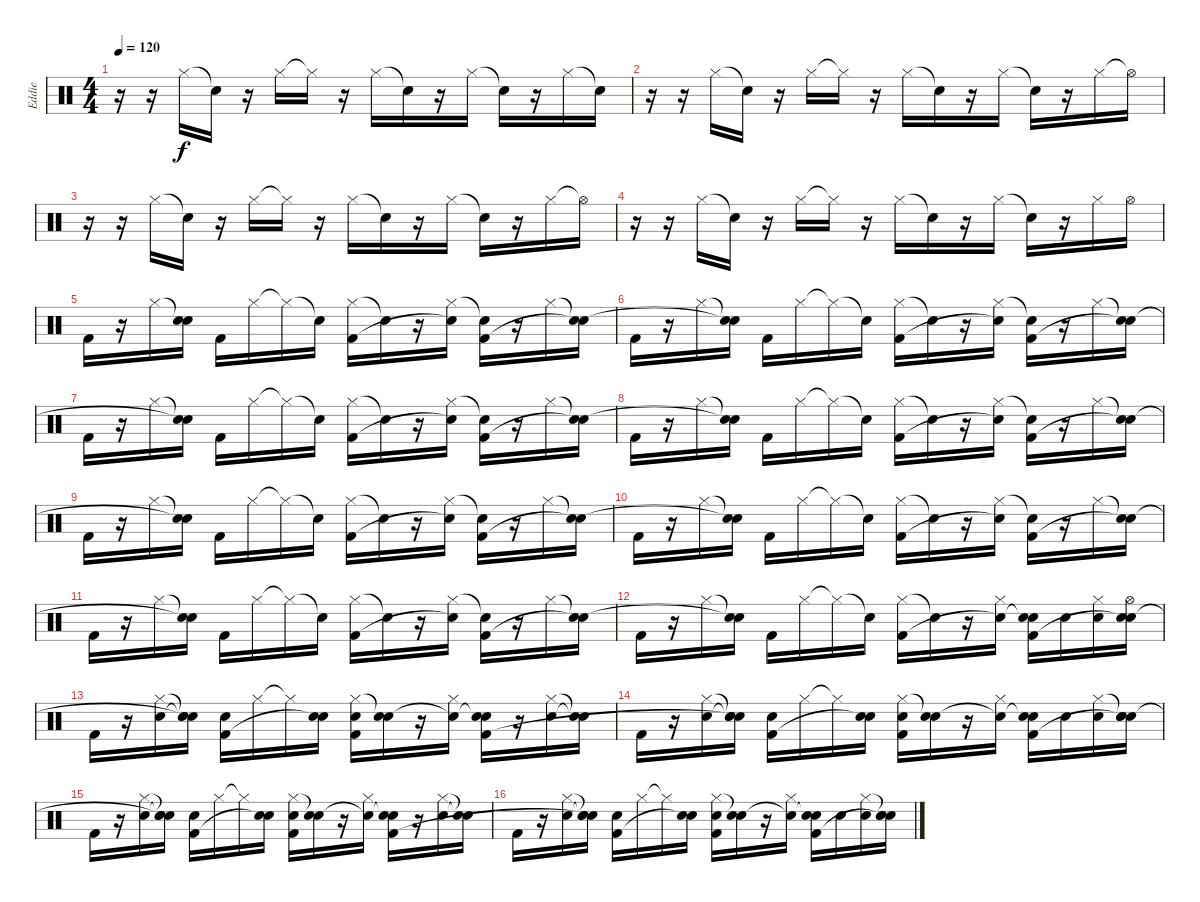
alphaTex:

\track ("Eddie" "Eddie") {instrument percussion}
\staff {score}
\articulation defaults
\ts (4 4)
\tempo 120
\clef neutral
\ks c
r.16{dy f} r.16 "Hi-Hat (closed)".16 "Snare (hit)"{t}.16 r.16 "Hi-Hat (closed)".16 "Hi-Hat (closed)"{t}.16 r.16 "Hi-Hat (closed)".16 "Snare (hit)"{t}.16 r.16 "Hi-Hat (closed)".16 "Snare (hit)"{t}.16 r.16 "Hi-Hat (closed)".16 "Snare (hit)"{t}.16 |
r.16 r.16 "Hi-Hat (closed)".16 "Snare (hit)"{t}.16 r.16 "Hi-Hat (closed)".16 "Hi-Hat (closed)"{t}.16 r.16 "Hi-Hat (closed)".16 "Snare (hit)"{t}.16 r.16 "Hi-Hat (closed)".16 "Snare (hit)"{t}.16 r.16 "Hi-Hat (closed)".16 "Hi-Hat (open)"{t}.16 |
r.16 r.16 "Hi-Hat (closed)".16 "Snare (hit)"{t}.16 r.16 "Hi-Hat (closed)".16 "Hi-Hat (closed)"{t}.16 r.16 "Hi-Hat (closed)".16 "Snare (hit)"{t}.16 r.16 "Hi-Hat (closed)".16 "Snare (hit)"{t}.16 r.16 "Hi-Hat (closed)".16 "Hi-Hat (open)"{t}.16 |
r.16 r.16 "Hi-Hat (closed)".16 "Snare (hit)"{t}.16 r.16 "Hi-Hat (closed)".16 "Hi-Hat (closed)"{t}.16 r.16 "Hi-Hat (closed)".16 "Snare (hit)"{t}.16 r.16 "Hi-Hat (closed)".16 "Snare (hit)"{t}.16 r.16 "Hi-Hat (closed)".16 "Hi-Hat (open)".16 |
"Kick (hit) 2".16 r.16 "Hi-Hat (closed)".16 ("Snare (hit)"{t} "Snare (hit)").16 "Kick (hit) 2".16 "Hi-Hat (closed)".16 "Hi-Hat (closed)"{t}.16 "Snare (hit)"{t}.16 ("Hi-Hat (closed)" "Kick (hit) 2").16 "Snare (hit)"{t}.16 r.16 ("Hi-Hat (closed)" "Snare (hit)"{t}).16 ("Snare (hit)"{t} "Kick (hit) 2").16 r.16 "Hi-Hat (closed)".16 ("Snare (hit)"{t} "Snare (hit)"{t}).16 |
"Kick (hit) 2".16 r.16 "Hi-Hat (closed)".16 ("Snare (hit)"{t} "Snare (hit)"{t}).16 "Kick (hit) 2".16 "Hi-Hat (closed)".16 "Hi-Hat (closed)"{t}.16 "Snare (hit)"{t}.16 ("Hi-Hat (closed)" "Kick (hit) 2").16 "Snare (hit)"{t}.16 r.16 ("Hi-Hat (closed)" "Snare (hit)"{t}).16 ("Snare (hit)"{t} "Kick (hit) 2").16 r.16 "Hi-Hat (closed)".16 ("Snare (hit)"{t} "Snare (hit)"{t}).16 |
"Kick (hit) 2".16 r.16 "Hi-Hat (closed)".16 ("Snare (hit)"{t} "Snare (hit)"{t}).16 "Kick (hit) 2".16 "Hi-Hat (closed)".16 "Hi-Hat (closed)"{t}.16 "Snare (hit)"{t}.16 ("Hi-Hat (closed)" "Kick (hit) 2").16 "Snare (hit)"{t}.16 r.16 ("Hi-Hat (closed)" "Snare (hit)"{t}).16 ("Snare (hit)"{t} "Kick (hit) 2").16 r.16 "Hi-Hat (closed)".16 ("Snare (hit)"{t} "Snare (hit)"{t}).16 |
"Kick (hit) 2".16 r.16 "Hi-Hat (closed)".16 ("Snare (hit)"{t} "Snare (hit)"{t}).16 "Kick (hit) 2".16 "Hi-Hat (closed)".16 "Hi-Hat (closed)"{t}.16 "Snare (hit)"{t}.16 ("Hi-Hat (closed)" "Kick (hit) 2").16 "Snare (hit)"{t}.16 r.16 ("Hi-Hat (closed)" "Snare (hit)"{t}).16 ("Snare (hit)"{t} "Kick (hit) 2").16 r.16 "Hi-Hat (closed)".16 ("Snare (hit)"{t} "Snare (hit)"{t}).16 |
"Kick (hit) 2".16 r.16 "Hi-Hat (closed)".16 ("Snare (hit)"{t} "Snare (hit)"{t}).16 "Kick (hit) 2".16 "Hi-Hat (closed)".16 "Hi-Hat (closed)"{t}.16 "Snare (hit)"{t}.16 ("Hi-Hat (closed)" "Kick (hit) 2").16 "Snare (hit)"{t}.16 r.16 ("Hi-Hat (closed)" "Snare (hit)"{t}).16 ("Snare (hit)"{t} "Kick (hit) 2").16 r.16 "Hi-Hat (closed)".16 ("Snare (hit)"{t} "Snare (hit)"{t}).16 |
"Kick (hit) 2".16 r.16 "Hi-Hat (closed)".16 ("Snare (hit)"{t} "Snare (hit)"{t}).16 "Kick (hit) 2".16 "Hi-Hat (closed)".16 "Hi-Hat (closed)"{t}.16 "Snare (hit)"{t}.16 ("Hi-Hat (closed)" "Kick (hit) 2").16 "Snare (hit)"{t}.16 r.16 ("Hi-Hat (closed)" "Snare (hit)"{t}).16 ("Snare (hit)"{t} "Kick (hit) 2").16 r.16 "Hi-Hat (closed)".16 ("Snare (hit)"{t} "Snare (hit)"{t}).16 |
"Kick (hit) 2".16 r.16 "Hi-Hat (closed)".16 ("Snare (hit)"{t} "Snare (hit)"{t}).16 "Kick (hit) 2".16 "Hi-Hat (closed)".16 "Hi-Hat (closed)"{t}.16 "Snare (hit)"{t}.16 ("Hi-Hat (closed)" "Kick (hit) 2").16 "Snare (hit)"{t}.16 r.16 ("Hi-Hat (closed)" "Snare (hit)"{t}).16 ("Snare (hit)"{t} "Kick (hit) 2").16 r.16 "Hi-Hat (closed)".16 ("Snare (hit)"{t} "Snare (hit)"{t}).16 |
"Kick (hit) 2".16 r.16 "Hi-Hat (closed)".16 ("Snare (hit)"{t} "Snare (hit)"{t}).16 "Kick (hit) 2".16 "Hi-Hat (closed)".16 "Hi-Hat (closed)"{t}.16 "Snare (hit)"{t}.16 ("Hi-Hat (closed)" "Kick (hit) 2").16 "Snare (hit)"{t}.16 r.16 ("Hi-Hat (closed)" "Snare (hit)"{t}).16 ("Snare (hit) 2" "Snare (hit)"{t} "Kick (hit) 2").16 "Electric Snare (hit)".16 ("Snare (hit) 2" "Hi-Hat (closed)").16 ("Electric Snare (hit)" "Hi-Hat (open)" "Snare (hit)"{t}).16 |
"Kick (hit) 2".16 r.16 ("Snare (hit) 2" "Hi-Hat (closed)").16 ("Snare (hit) 2"{t} "Snare (hit)"{t} "Snare (hit)"{t}).16 ("Snare (hit) 2" "Kick (hit) 2").16 "Hi-Hat (closed)".16 "Hi-Hat (closed)"{t}.16 ("Snare (hit) 2" "Snare (hit)"{t}).16 ("Snare (hit) 2" "Hi-Hat (closed)" "Kick (hit) 2").16 ("Snare (hit) 2" "Snare (hit)"{t}).16 r.16 ("Hi-Hat (closed)" "Snare (hit)"{t}).16 ("Snare (hit) 2" "Snare (hit)"{t} "Kick (hit) 2").16 r.16 ("Snare (hit) 2" "Hi-Hat (closed)").16 ("Snare (hit)"{t} "Snare (hit)"{t}).16 |
"Kick (hit) 2".16 r.16 ("Snare (hit) 2" "Hi-Hat (closed)").16 ("Snare (hit) 2"{t} "Snare (hit)"{t} "Snare (hit)"{t}).16 ("Snare (hit) 2" "Kick (hit) 2").16 "Hi-Hat (closed)".16 "Hi-Hat (closed)"{t}.16 ("Snare (hit) 2" "Snare (hit)"{t}).16 ("Snare (hit) 2" "Hi-Hat (closed)" "Kick (hit) 2").16 ("Snare (hit) 2" "Snare (hit)"{t}).16 r.16 ("Hi-Hat (closed)" "Snare (hit)"{t}).16 ("Snare (hit) 2" "Snare (hit)"{t} "Kick (hit) 2").16 "Electric Snare (hit)".16 ("Snare (hit) 2" "Hi-Hat (closed)").16 ("Electric Snare (hit)" "Snare (hit)"{t} "Snare (hit)"{t}).16 |
"Kick (hit) 2".16 r.16 ("Snare (hit) 2" "Hi-Hat (closed)").16 ("Snare (hit) 2"{t} "Snare (hit)"{t} "Snare (hit)"{t}).16 ("Snare (hit) 2" "Kick (hit) 2").16 "Hi-Hat (closed)".16 "Hi-Hat (closed)"{t}.16 ("Snare (hit) 2" "Snare (hit)"{t}).16 ("Snare (hit) 2" "Hi-Hat (closed)" "Kick (hit) 2").16 ("Snare (hit) 2" "Snare (hit)"{t}).16 r.16 ("Hi-Hat (closed)" "Snare (hit)"{t}).16 ("Snare (hit) 2" "Snare (hit)"{t} "Kick (hit) 2").16 r.16 ("Snare (hit) 2" "Hi-Hat (closed)").16 ("Snare (hit)"{t} "Snare (hit)"{t}).16 |
"Kick (hit) 2".16 r.16 ("Snare (hit) 2" "Hi-Hat (closed)").16 ("Snare (hit) 2"{t} "Snare (hit)"{t} "Snare (hit)"{t}).16 ("Snare (hit) 2" "Kick (hit) 2").16 "Hi-Hat (closed)".16 "Hi-Hat (closed)"{t}.16 ("Snare (hit) 2" "Snare (hit)"{t}).16 ("Snare (hit) 2" "Hi-Hat (closed)" "Kick (hit) 2").16 ("Snare (hit) 2" "Snare (hit)"{t}).16 r.16 ("Hi-Hat (closed)" "Snare (hit)"{t}).16 ("Snare (hit) 2" "Snare (hit)"{t} "Kick (hit) 2").16 "Electric Snare (hit)".16 ("Snare (hit) 2" "Hi-Hat (closed)").16 ("Electric Snare (hit)" "Snare (hit)"{t} "Snare (hit)"{t}).16
